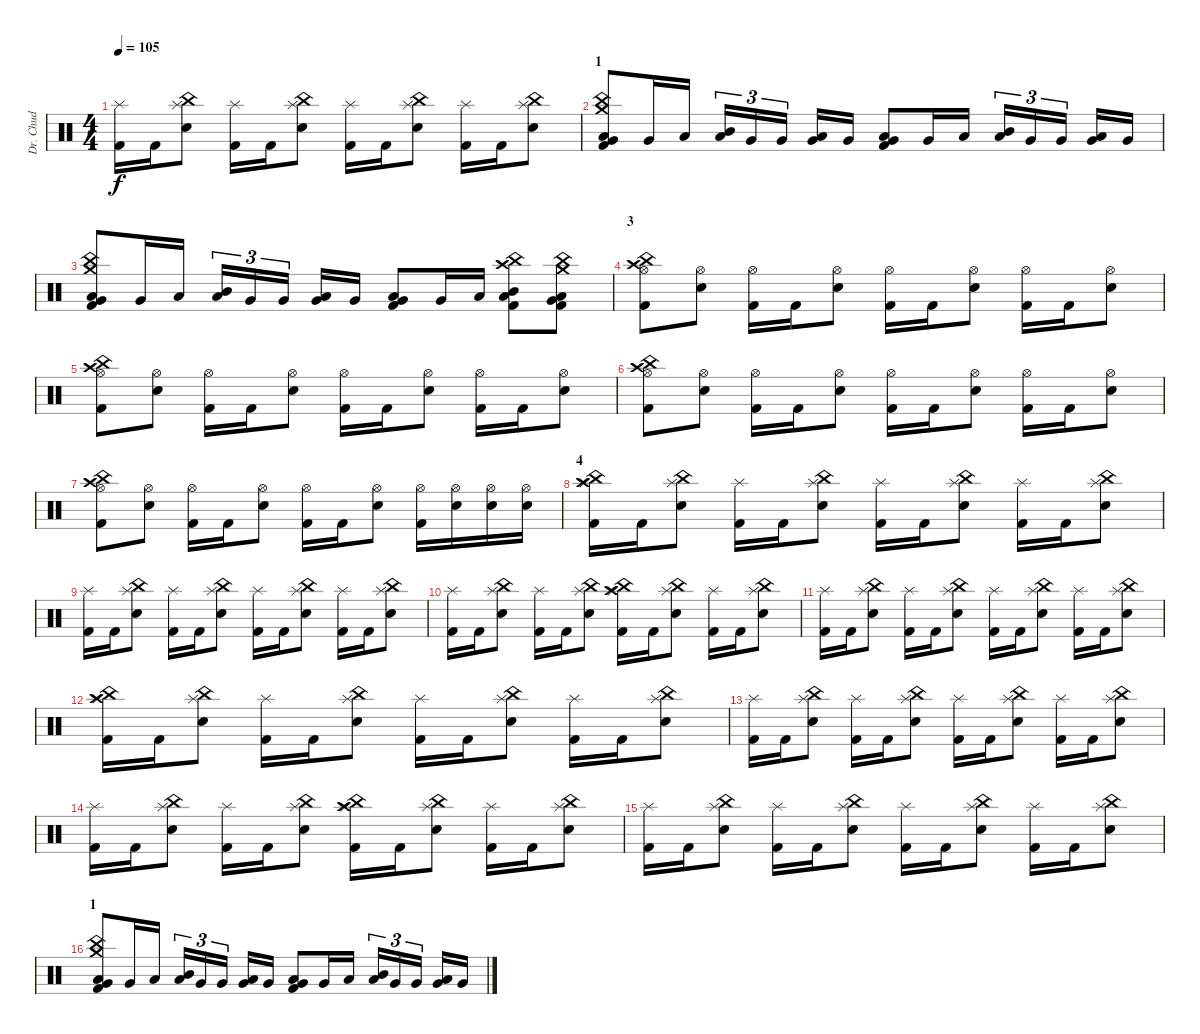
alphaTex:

\track ("Dr. Chud" "Dr. Chud") {instrument percussion}
\staff {score}
\articulation defaults
\ts (4 4)
\tempo 105
\clef neutral
\ks c
("Splash (hit)" "Kick (hit) 2").16{dy f} "Kick (hit) 2".16 ("China (hit)" "Splash (hit)" "Electric Snare (hit)").8 ("Splash (hit)" "Kick (hit) 2").16 "Kick (hit) 2".16 ("China (hit)" "Splash (hit)" "Electric Snare (hit)").8 ("Splash (hit)" "Kick (hit) 2").16 "Kick (hit) 2".16 ("China (hit)" "Splash (hit)" "Electric Snare (hit)").8 ("Splash (hit)" "Kick (hit) 2").16 "Kick (hit) 2".16 ("China (hit)" "Splash (hit)" "Electric Snare (hit)").8 |
\section ("" "1")
("Crash medium (hit)" "China (hit)" "Very Low Tom (hit)" "Low Floor Tom (hit)" "Kick (hit) 2").8 "Very Low Tom (hit)".16 "Low Tom (hit)".16 ("Mid Tom (hit)" "Low Tom (hit)").16{tu (3 2)} "Very Low Tom (hit)".16{tu (3 2)} "Very Low Tom (hit)".16{tu (3 2)} ("Very Low Tom (hit)" "Low Floor Tom (hit)").16 "Very Low Tom (hit)".16 ("Very Low Tom (hit)" "Low Floor Tom (hit)" "Kick (hit) 2").8 "Very Low Tom (hit)".16 "Low Tom (hit)".16 ("Mid Tom (hit)" "Low Tom (hit)").16{tu (3 2)} "Very Low Tom (hit)".16{tu (3 2)} "Very Low Tom (hit)".16{tu (3 2)} ("Very Low Tom (hit)" "Low Floor Tom (hit)").16 "Very Low Tom (hit)".16 |
("Crash medium (hit)" "China (hit)" "Very Low Tom (hit)" "Low Floor Tom (hit)" "Kick (hit) 2").8 "Very Low Tom (hit)".16 "Low Tom (hit)".16 ("Mid Tom (hit)" "Low Tom (hit)").16{tu (3 2)} "Very Low Tom (hit)".16{tu (3 2)} "Very Low Tom (hit)".16{tu (3 2)} ("Very Low Tom (hit)" "Low Floor Tom (hit)").16 "Very Low Tom (hit)".16 ("Very Low Tom (hit)" "Low Floor Tom (hit)" "Kick (hit) 2").8 "Very Low Tom (hit)".16 "Low Tom (hit)".16 ("Crash high (hit)" "China (hit)" "Mid Tom (hit)" "Low Tom (hit)" "Kick (hit) 2").8 ("Crash medium (hit)" "China (hit)" "Very Low Tom (hit)" "Low Floor Tom (hit)" "Kick (hit) 2").8 |
\section ("" "3")
("Crash high (hit)" "China (hit)" "Hi-Hat (open)" "Kick (hit) 2").8 ("Hi-Hat (open)" "Electric Snare (hit)").8 ("Hi-Hat (open)" "Kick (hit) 2").16 "Kick (hit) 2".16 ("Hi-Hat (open)" "Electric Snare (hit)").8 ("Hi-Hat (open)" "Kick (hit) 2").16 "Kick (hit) 2".16 ("Hi-Hat (open)" "Electric Snare (hit)").8 ("Hi-Hat (open)" "Kick (hit) 2").16 "Kick (hit) 2".16 ("Hi-Hat (open)" "Electric Snare (hit)").8 |
("Crash high (hit)" "China (hit)" "Hi-Hat (open)" "Kick (hit) 2").8 ("Hi-Hat (open)" "Electric Snare (hit)").8 ("Hi-Hat (open)" "Kick (hit) 2").16 "Kick (hit) 2".16 ("Hi-Hat (open)" "Electric Snare (hit)").8 ("Hi-Hat (open)" "Kick (hit) 2").16 "Kick (hit) 2".16 ("Hi-Hat (open)" "Electric Snare (hit)").8 ("Hi-Hat (open)" "Kick (hit) 2").16 "Kick (hit) 2".16 ("Hi-Hat (open)" "Electric Snare (hit)").8 |
("Crash high (hit)" "China (hit)" "Hi-Hat (open)" "Kick (hit) 2").8 ("Hi-Hat (open)" "Electric Snare (hit)").8 ("Hi-Hat (open)" "Kick (hit) 2").16 "Kick (hit) 2".16 ("Hi-Hat (open)" "Electric Snare (hit)").8 ("Hi-Hat (open)" "Kick (hit) 2").16 "Kick (hit) 2".16 ("Hi-Hat (open)" "Electric Snare (hit)").8 ("Hi-Hat (open)" "Kick (hit) 2").16 "Kick (hit) 2".16 ("Hi-Hat (open)" "Electric Snare (hit)").8 |
("Crash high (hit)" "China (hit)" "Hi-Hat (open)" "Kick (hit) 2").8 ("Hi-Hat (open)" "Electric Snare (hit)").8 ("Hi-Hat (open)" "Kick (hit) 2").16 "Kick (hit) 2".16 ("Hi-Hat (open)" "Electric Snare (hit)").8 ("Hi-Hat (open)" "Kick (hit) 2").16 "Kick (hit) 2".16 ("Hi-Hat (open)" "Electric Snare (hit)").8 ("Hi-Hat (open)" "Kick (hit) 2").16 ("Hi-Hat (open)" "Electric Snare (hit)").16 ("Hi-Hat (open)" "Electric Snare (hit)").16 ("Hi-Hat (open)" "Electric Snare (hit)").16 |
\section ("" "4")
("Crash high (hit)" "China (hit)" "Splash (hit)" "Kick (hit) 2").16 "Kick (hit) 2".16 ("China (hit)" "Splash (hit)" "Electric Snare (hit)").8 ("Splash (hit)" "Kick (hit) 2").16 "Kick (hit) 2".16 ("China (hit)" "Splash (hit)" "Electric Snare (hit)").8 ("Splash (hit)" "Kick (hit) 2").16 "Kick (hit) 2".16 ("China (hit)" "Splash (hit)" "Electric Snare (hit)").8 ("Splash (hit)" "Kick (hit) 2").16 "Kick (hit) 2".16 ("China (hit)" "Splash (hit)" "Electric Snare (hit)").8 |
("Splash (hit)" "Kick (hit) 2").16 "Kick (hit) 2".16 ("China (hit)" "Splash (hit)" "Electric Snare (hit)").8 ("Splash (hit)" "Kick (hit) 2").16 "Kick (hit) 2".16 ("China (hit)" "Splash (hit)" "Electric Snare (hit)").8 ("Splash (hit)" "Kick (hit) 2").16 "Kick (hit) 2".16 ("China (hit)" "Splash (hit)" "Electric Snare (hit)").8 ("Splash (hit)" "Kick (hit) 2").16 "Kick (hit) 2".16 ("China (hit)" "Splash (hit)" "Electric Snare (hit)").8 |
("Splash (hit)" "Kick (hit) 2").16 "Kick (hit) 2".16 ("China (hit)" "Splash (hit)" "Electric Snare (hit)").8 ("Splash (hit)" "Kick (hit) 2").16 "Kick (hit) 2".16 ("China (hit)" "Splash (hit)" "Electric Snare (hit)").8 ("Crash high (hit)" "China (hit)" "Splash (hit)" "Kick (hit) 2").16 "Kick (hit) 2".16 ("China (hit)" "Splash (hit)" "Electric Snare (hit)").8 ("Splash (hit)" "Kick (hit) 2").16 "Kick (hit) 2".16 ("China (hit)" "Splash (hit)" "Electric Snare (hit)").8 |
("Splash (hit)" "Kick (hit) 2").16 "Kick (hit) 2".16 ("China (hit)" "Splash (hit)" "Electric Snare (hit)").8 ("Splash (hit)" "Kick (hit) 2").16 "Kick (hit) 2".16 ("China (hit)" "Splash (hit)" "Electric Snare (hit)").8 ("Splash (hit)" "Kick (hit) 2").16 "Kick (hit) 2".16 ("China (hit)" "Splash (hit)" "Electric Snare (hit)").8 ("Splash (hit)" "Kick (hit) 2").16 "Kick (hit) 2".16 ("China (hit)" "Splash (hit)" "Electric Snare (hit)").8 |
("Crash high (hit)" "China (hit)" "Splash (hit)" "Kick (hit) 2").16 "Kick (hit) 2".16 ("China (hit)" "Splash (hit)" "Electric Snare (hit)").8 ("Splash (hit)" "Kick (hit) 2").16 "Kick (hit) 2".16 ("China (hit)" "Splash (hit)" "Electric Snare (hit)").8 ("Splash (hit)" "Kick (hit) 2").16 "Kick (hit) 2".16 ("China (hit)" "Splash (hit)" "Electric Snare (hit)").8 ("Splash (hit)" "Kick (hit) 2").16 "Kick (hit) 2".16 ("China (hit)" "Splash (hit)" "Electric Snare (hit)").8 |
("Splash (hit)" "Kick (hit) 2").16 "Kick (hit) 2".16 ("China (hit)" "Splash (hit)" "Electric Snare (hit)").8 ("Splash (hit)" "Kick (hit) 2").16 "Kick (hit) 2".16 ("China (hit)" "Splash (hit)" "Electric Snare (hit)").8 ("Splash (hit)" "Kick (hit) 2").16 "Kick (hit) 2".16 ("China (hit)" "Splash (hit)" "Electric Snare (hit)").8 ("Splash (hit)" "Kick (hit) 2").16 "Kick (hit) 2".16 ("China (hit)" "Splash (hit)" "Electric Snare (hit)").8 |
("Splash (hit)" "Kick (hit) 2").16 "Kick (hit) 2".16 ("China (hit)" "Splash (hit)" "Electric Snare (hit)").8 ("Splash (hit)" "Kick (hit) 2").16 "Kick (hit) 2".16 ("China (hit)" "Splash (hit)" "Electric Snare (hit)").8 ("Crash high (hit)" "China (hit)" "Splash (hit)" "Kick (hit) 2").16 "Kick (hit) 2".16 ("China (hit)" "Splash (hit)" "Electric Snare (hit)").8 ("Splash (hit)" "Kick (hit) 2").16 "Kick (hit) 2".16 ("China (hit)" "Splash (hit)" "Electric Snare (hit)").8 |
("Splash (hit)" "Kick (hit) 2").16 "Kick (hit) 2".16 ("China (hit)" "Splash (hit)" "Electric Snare (hit)").8 ("Splash (hit)" "Kick (hit) 2").16 "Kick (hit) 2".16 ("China (hit)" "Splash (hit)" "Electric Snare (hit)").8 ("Splash (hit)" "Kick (hit) 2").16 "Kick (hit) 2".16 ("China (hit)" "Splash (hit)" "Electric Snare (hit)").8 ("Splash (hit)" "Kick (hit) 2").16 "Kick (hit) 2".16 ("China (hit)" "Splash (hit)" "Electric Snare (hit)").8 |
\section ("" "1")
("Crash medium (hit)" "China (hit)" "Very Low Tom (hit)" "Low Floor Tom (hit)" "Kick (hit) 2").8 "Very Low Tom (hit)".16 "Low Tom (hit)".16 ("Mid Tom (hit)" "Low Tom (hit)").16{tu (3 2)} "Very Low Tom (hit)".16{tu (3 2)} "Very Low Tom (hit)".16{tu (3 2)} ("Very Low Tom (hit)" "Low Floor Tom (hit)").16 "Very Low Tom (hit)".16 ("Very Low Tom (hit)" "Low Floor Tom (hit)" "Kick (hit) 2").8 "Very Low Tom (hit)".16 "Low Tom (hit)".16 ("Mid Tom (hit)" "Low Tom (hit)").16{tu (3 2)} "Very Low Tom (hit)".16{tu (3 2)} "Very Low Tom (hit)".16{tu (3 2)} ("Very Low Tom (hit)" "Low Floor Tom (hit)").16 "Very Low Tom (hit)".16
